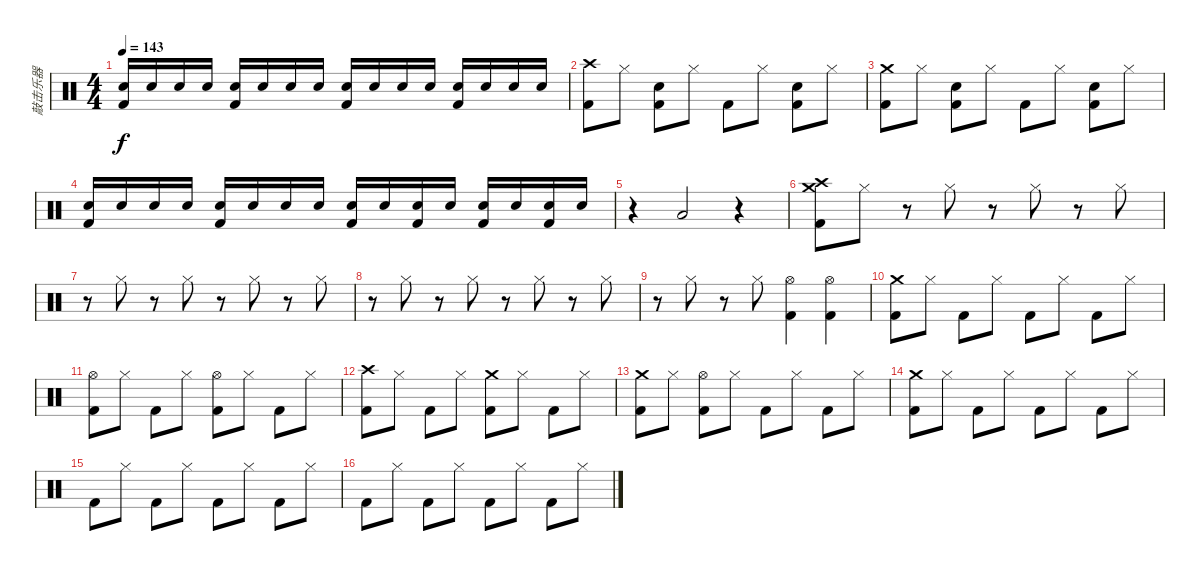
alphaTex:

\track ("敲击乐器" "敲击乐器") {instrument percussion}
\staff {score}
\articulation defaults
\ts (4 4)
\tempo 143
\clef neutral
\ks c
("Electric Snare (hit)" "Kick (hit) 2").16{dy f} "Electric Snare (hit)".16 "Electric Snare (hit)".16 "Electric Snare (hit)".16 ("Electric Snare (hit)" "Kick (hit) 2").16 "Electric Snare (hit)".16 "Electric Snare (hit)".16 "Electric Snare (hit)".16 ("Electric Snare (hit)" "Kick (hit) 2").16 "Electric Snare (hit)".16 "Electric Snare (hit)".16 "Electric Snare (hit)".16 ("Electric Snare (hit)" "Kick (hit) 2").16 "Electric Snare (hit)".16 "Electric Snare (hit)".16 "Electric Snare (hit)".16 |
("Crash high (hit)" "Kick (hit) 2").8 "Hi-Hat (closed)".8 ("Electric Snare (hit)" "Kick (hit) 2").8 "Hi-Hat (closed)".8 "Kick (hit) 2".8 "Hi-Hat (closed)".8 ("Electric Snare (hit)" "Kick (hit) 2").8 "Hi-Hat (closed)".8 |
("Crash medium (hit)" "Kick (hit) 2").8 "Hi-Hat (closed)".8 ("Electric Snare (hit)" "Kick (hit) 2").8 "Hi-Hat (closed)".8 "Kick (hit) 2".8 "Hi-Hat (closed)".8 ("Electric Snare (hit)" "Kick (hit) 2").8 "Hi-Hat (closed)".8 |
("Electric Snare (hit)" "Kick (hit) 2").16 "Electric Snare (hit)".16 "Electric Snare (hit)".16 "Electric Snare (hit)".16 ("Electric Snare (hit)" "Kick (hit) 2").16 "Electric Snare (hit)".16 "Electric Snare (hit)".16 "Electric Snare (hit)".16 ("Electric Snare (hit)" "Kick (hit) 2").16 "Electric Snare (hit)".16 ("Electric Snare (hit)" "Kick (hit) 2").16 "Electric Snare (hit)".16 ("Electric Snare (hit)" "Kick (hit) 2").16 "Electric Snare (hit)".16 ("Electric Snare (hit)" "Kick (hit) 2").16 "Electric Snare (hit)".16 |
r.4 "Low Floor Tom (hit)".2 r.4 |
("Crash medium (hit)" "Crash high (hit)" "Kick (hit) 2").8 "Hi-Hat (closed)".8 r.8 "Hi-Hat (closed)".8 r.8 "Hi-Hat (closed)".8 r.8 "Hi-Hat (closed)".8 |
r.8 "Hi-Hat (closed)".8 r.8 "Hi-Hat (closed)".8 r.8 "Hi-Hat (closed)".8 r.8 "Hi-Hat (closed)".8 |
r.8 "Hi-Hat (closed)".8 r.8 "Hi-Hat (closed)".8 r.8 "Hi-Hat (closed)".8 r.8 "Hi-Hat (closed)".8 |
r.8 "Hi-Hat (closed)".8 r.8 "Hi-Hat (closed)".8 ("Hi-Hat (open)" "Kick (hit) 2").4 ("Hi-Hat (open)" "Kick (hit) 2").4 |
("Crash medium (hit)" "Kick (hit) 2").8 "Hi-Hat (closed)".8 "Kick (hit) 2".8 "Hi-Hat (closed)".8 "Kick (hit) 2".8 "Hi-Hat (closed)".8 "Kick (hit) 2".8 "Hi-Hat (closed)".8 |
("Hi-Hat (open)" "Kick (hit) 2").8 "Hi-Hat (closed)".8 "Kick (hit) 2".8 "Hi-Hat (closed)".8 ("Hi-Hat (open)" "Kick (hit) 2").8 "Hi-Hat (closed)".8 "Kick (hit) 2".8 "Hi-Hat (closed)".8 |
("Crash high (hit)" "Kick (hit) 2").8 "Hi-Hat (closed)".8 "Kick (hit) 2".8 "Hi-Hat (closed)".8 ("Crash medium (hit)" "Kick (hit) 2").8 "Hi-Hat (closed)".8 "Kick (hit) 2".8 "Hi-Hat (closed)".8 |
("Crash medium (hit)" "Kick (hit) 2").8 "Hi-Hat (closed)".8 ("Hi-Hat (open)" "Kick (hit) 2").8 "Hi-Hat (closed)".8 "Kick (hit) 2".8 "Hi-Hat (closed)".8 "Kick (hit) 2".8 "Hi-Hat (closed)".8 |
("Crash medium (hit)" "Kick (hit) 2").8 "Hi-Hat (closed)".8 "Kick (hit) 2".8 "Hi-Hat (closed)".8 "Kick (hit) 2".8 "Hi-Hat (closed)".8 "Kick (hit) 2".8 "Hi-Hat (closed)".8 |
"Kick (hit) 2".8 "Hi-Hat (closed)".8 "Kick (hit) 2".8 "Hi-Hat (closed)".8 "Kick (hit) 2".8 "Hi-Hat (closed)".8 "Kick (hit) 2".8 "Hi-Hat (closed)".8 |
"Kick (hit) 2".8 "Hi-Hat (closed)".8 "Kick (hit) 2".8 "Hi-Hat (closed)".8 "Kick (hit) 2".8 "Hi-Hat (closed)".8 "Kick (hit) 2".8 "Hi-Hat (closed)".8
